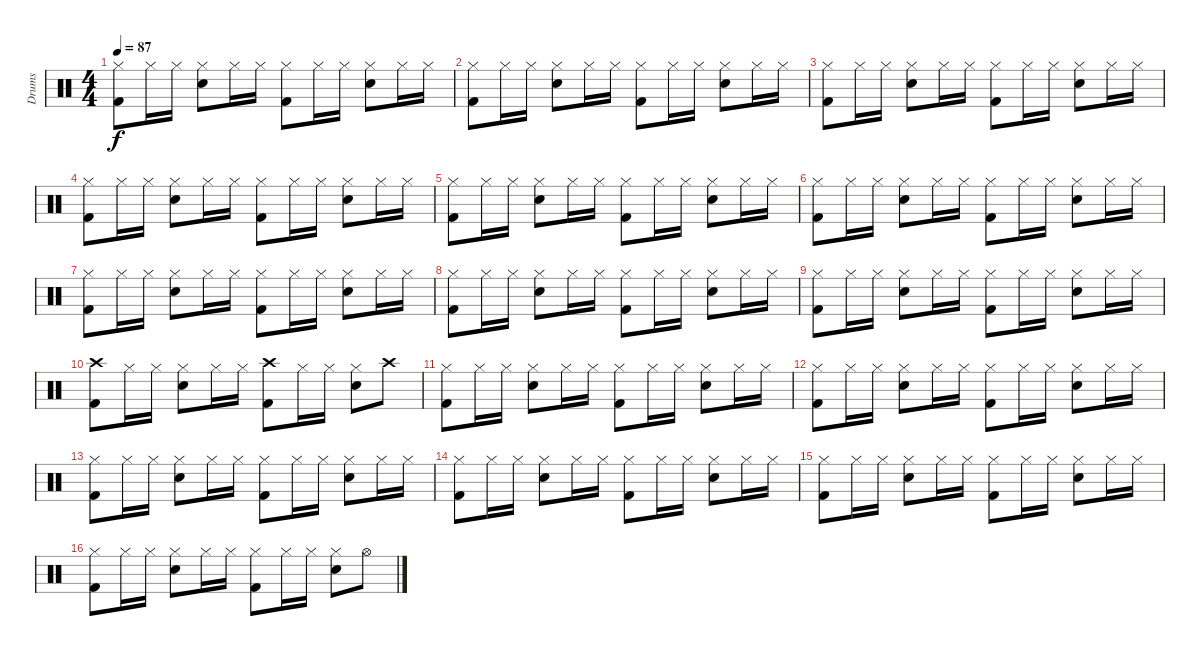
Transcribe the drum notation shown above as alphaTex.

\track ("Drums" "Drums") {instrument percussion}
\staff {score}
\articulation defaults
\ts (4 4)
\tempo 87
\clef neutral
\ks c
("Hi-Hat (closed)" "Kick (hit) 2").8{dy f} "Hi-Hat (closed)".16 "Hi-Hat (closed)".16 ("Hi-Hat (closed)" "Snare (hit) 2").8 "Hi-Hat (closed)".16 "Hi-Hat (closed)".16 ("Hi-Hat (closed)" "Kick (hit) 2").8 "Hi-Hat (closed)".16 "Hi-Hat (closed)".16 ("Hi-Hat (closed)" "Snare (hit) 2").8 "Hi-Hat (closed)".16 "Hi-Hat (closed)".16 |
("Hi-Hat (closed)" "Kick (hit) 2").8 "Hi-Hat (closed)".16 "Hi-Hat (closed)".16 ("Hi-Hat (closed)" "Snare (hit) 2").8 "Hi-Hat (closed)".16 "Hi-Hat (closed)".16 ("Hi-Hat (closed)" "Kick (hit) 2").8 "Hi-Hat (closed)".16 "Hi-Hat (closed)".16 ("Hi-Hat (closed)" "Snare (hit) 2").8 "Hi-Hat (closed)".16 "Hi-Hat (closed)".16 |
("Hi-Hat (closed)" "Kick (hit) 2").8 "Hi-Hat (closed)".16 "Hi-Hat (closed)".16 ("Hi-Hat (closed)" "Snare (hit) 2").8 "Hi-Hat (closed)".16 "Hi-Hat (closed)".16 ("Hi-Hat (closed)" "Kick (hit) 2").8 "Hi-Hat (closed)".16 "Hi-Hat (closed)".16 ("Hi-Hat (closed)" "Snare (hit) 2").8 "Hi-Hat (closed)".16 "Hi-Hat (closed)".16 |
("Hi-Hat (closed)" "Kick (hit) 2").8 "Hi-Hat (closed)".16 "Hi-Hat (closed)".16 ("Hi-Hat (closed)" "Snare (hit) 2").8 "Hi-Hat (closed)".16 "Hi-Hat (closed)".16 ("Hi-Hat (closed)" "Kick (hit) 2").8 "Hi-Hat (closed)".16 "Hi-Hat (closed)".16 ("Hi-Hat (closed)" "Snare (hit) 2").8 "Hi-Hat (closed)".16 "Hi-Hat (closed)".16 |
("Hi-Hat (closed)" "Kick (hit) 2").8 "Hi-Hat (closed)".16 "Hi-Hat (closed)".16 ("Hi-Hat (closed)" "Snare (hit) 2").8 "Hi-Hat (closed)".16 "Hi-Hat (closed)".16 ("Hi-Hat (closed)" "Kick (hit) 2").8 "Hi-Hat (closed)".16 "Hi-Hat (closed)".16 ("Hi-Hat (closed)" "Snare (hit) 2").8 "Hi-Hat (closed)".16 "Hi-Hat (closed)".16 |
("Hi-Hat (closed)" "Kick (hit) 2").8 "Hi-Hat (closed)".16 "Hi-Hat (closed)".16 ("Hi-Hat (closed)" "Snare (hit) 2").8 "Hi-Hat (closed)".16 "Hi-Hat (closed)".16 ("Hi-Hat (closed)" "Kick (hit) 2").8 "Hi-Hat (closed)".16 "Hi-Hat (closed)".16 ("Hi-Hat (closed)" "Snare (hit) 2").8 "Hi-Hat (closed)".16 "Hi-Hat (closed)".16 |
("Hi-Hat (closed)" "Kick (hit) 2").8 "Hi-Hat (closed)".16 "Hi-Hat (closed)".16 ("Hi-Hat (closed)" "Snare (hit) 2").8 "Hi-Hat (closed)".16 "Hi-Hat (closed)".16 ("Hi-Hat (closed)" "Kick (hit) 2").8 "Hi-Hat (closed)".16 "Hi-Hat (closed)".16 ("Hi-Hat (closed)" "Snare (hit) 2").8 "Hi-Hat (closed)".16 "Hi-Hat (closed)".16 |
("Hi-Hat (closed)" "Kick (hit) 2").8 "Hi-Hat (closed)".16 "Hi-Hat (closed)".16 ("Hi-Hat (closed)" "Snare (hit) 2").8 "Hi-Hat (closed)".16 "Hi-Hat (closed)".16 ("Hi-Hat (closed)" "Kick (hit) 2").8 "Hi-Hat (closed)".16 "Hi-Hat (closed)".16 ("Hi-Hat (closed)" "Snare (hit) 2").8 "Hi-Hat (closed)".16 "Hi-Hat (closed)".16 |
("Hi-Hat (closed)" "Kick (hit) 2").8 "Hi-Hat (closed)".16 "Hi-Hat (closed)".16 ("Hi-Hat (closed)" "Snare (hit) 2").8 "Hi-Hat (closed)".16 "Hi-Hat (closed)".16 ("Hi-Hat (closed)" "Kick (hit) 2").8 "Hi-Hat (closed)".16 "Hi-Hat (closed)".16 ("Hi-Hat (closed)" "Snare (hit) 2").8 "Hi-Hat (closed)".16 "Hi-Hat (closed)".16 |
("Crash high (hit)" "Kick (hit) 2").8 "Hi-Hat (closed)".16 "Hi-Hat (closed)".16 ("Hi-Hat (closed)" "Snare (hit) 2").8 "Hi-Hat (closed)".16 "Hi-Hat (closed)".16 ("Crash high (hit)" "Kick (hit) 2").8 "Hi-Hat (closed)".16 "Hi-Hat (closed)".16 ("Hi-Hat (closed)" "Snare (hit) 2").8 "Crash high (hit)".8 |
("Hi-Hat (closed)" "Kick (hit) 2").8 "Hi-Hat (closed)".16 "Hi-Hat (closed)".16 ("Hi-Hat (closed)" "Snare (hit) 2").8 "Hi-Hat (closed)".16 "Hi-Hat (closed)".16 ("Hi-Hat (closed)" "Kick (hit) 2").8 "Hi-Hat (closed)".16 "Hi-Hat (closed)".16 ("Hi-Hat (closed)" "Snare (hit) 2").8 "Hi-Hat (closed)".16 "Hi-Hat (closed)".16 |
("Hi-Hat (closed)" "Kick (hit) 2").8 "Hi-Hat (closed)".16 "Hi-Hat (closed)".16 ("Hi-Hat (closed)" "Snare (hit) 2").8 "Hi-Hat (closed)".16 "Hi-Hat (closed)".16 ("Hi-Hat (closed)" "Kick (hit) 2").8 "Hi-Hat (closed)".16 "Hi-Hat (closed)".16 ("Hi-Hat (closed)" "Snare (hit) 2").8 "Hi-Hat (closed)".16 "Hi-Hat (closed)".16 |
("Hi-Hat (closed)" "Kick (hit) 2").8 "Hi-Hat (closed)".16 "Hi-Hat (closed)".16 ("Hi-Hat (closed)" "Snare (hit) 2").8 "Hi-Hat (closed)".16 "Hi-Hat (closed)".16 ("Hi-Hat (closed)" "Kick (hit) 2").8 "Hi-Hat (closed)".16 "Hi-Hat (closed)".16 ("Hi-Hat (closed)" "Snare (hit) 2").8 "Hi-Hat (closed)".16 "Hi-Hat (closed)".16 |
("Hi-Hat (closed)" "Kick (hit) 2").8 "Hi-Hat (closed)".16 "Hi-Hat (closed)".16 ("Hi-Hat (closed)" "Snare (hit) 2").8 "Hi-Hat (closed)".16 "Hi-Hat (closed)".16 ("Hi-Hat (closed)" "Kick (hit) 2").8 "Hi-Hat (closed)".16 "Hi-Hat (closed)".16 ("Hi-Hat (closed)" "Snare (hit) 2").8 "Hi-Hat (closed)".16 "Hi-Hat (closed)".16 |
("Hi-Hat (closed)" "Kick (hit) 2").8 "Hi-Hat (closed)".16 "Hi-Hat (closed)".16 ("Hi-Hat (closed)" "Snare (hit) 2").8 "Hi-Hat (closed)".16 "Hi-Hat (closed)".16 ("Hi-Hat (closed)" "Kick (hit) 2").8 "Hi-Hat (closed)".16 "Hi-Hat (closed)".16 ("Hi-Hat (closed)" "Snare (hit) 2").8 "Hi-Hat (closed)".16 "Hi-Hat (closed)".16 |
("Hi-Hat (closed)" "Kick (hit) 2").8 "Hi-Hat (closed)".16 "Hi-Hat (closed)".16 ("Hi-Hat (closed)" "Snare (hit) 2").8 "Hi-Hat (closed)".16 "Hi-Hat (closed)".16 ("Hi-Hat (closed)" "Kick (hit) 2").8 "Hi-Hat (closed)".16 "Hi-Hat (closed)".16 ("Hi-Hat (closed)" "Snare (hit) 2").8 "Hi-Hat (open)".8
